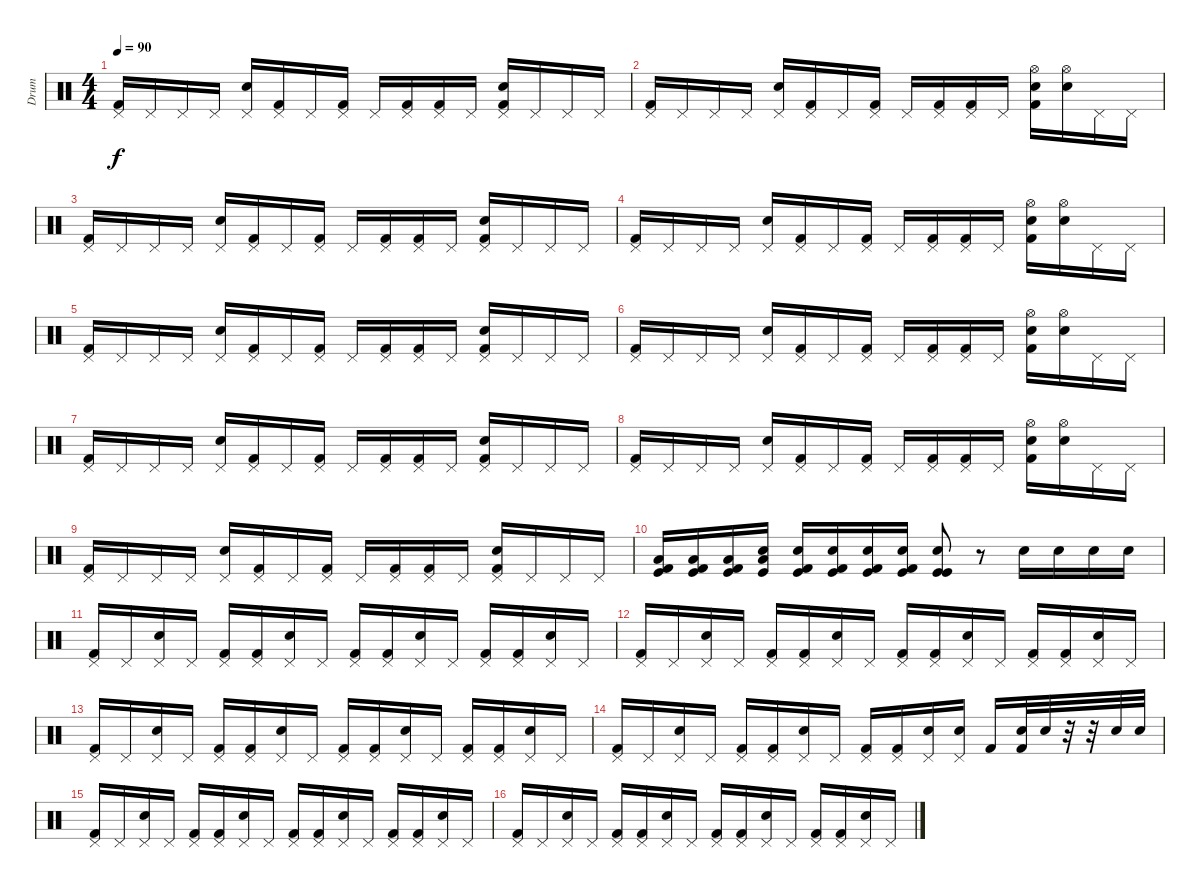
\track ("Drum" "Drum") {instrument percussion}
\staff {score}
\articulation defaults
\ts (4 4)
\tempo 90
\clef neutral
\ks c
("Pedal Hi-Hat (hit)" "Kick (hit) 2").16{dy f} "Pedal Hi-Hat (hit)".16 "Pedal Hi-Hat (hit)".16 "Pedal Hi-Hat (hit)".16 ("Pedal Hi-Hat (hit)" "Snare (hit) 2").16 ("Pedal Hi-Hat (hit)" "Kick (hit) 2").16 "Pedal Hi-Hat (hit)".16 ("Pedal Hi-Hat (hit)" "Kick (hit) 2").16 "Pedal Hi-Hat (hit)".16 ("Pedal Hi-Hat (hit)" "Kick (hit) 2").16 ("Pedal Hi-Hat (hit)" "Kick (hit) 2").16 "Pedal Hi-Hat (hit)".16 ("Pedal Hi-Hat (hit)" "Snare (hit) 2" "Kick (hit) 2").16 "Pedal Hi-Hat (hit)".16 "Pedal Hi-Hat (hit)".16 "Pedal Hi-Hat (hit)".16 |
("Pedal Hi-Hat (hit)" "Kick (hit) 2").16 "Pedal Hi-Hat (hit)".16 "Pedal Hi-Hat (hit)".16 "Pedal Hi-Hat (hit)".16 ("Pedal Hi-Hat (hit)" "Snare (hit) 2").16 ("Pedal Hi-Hat (hit)" "Kick (hit) 2").16 "Pedal Hi-Hat (hit)".16 ("Pedal Hi-Hat (hit)" "Kick (hit) 2").16 "Pedal Hi-Hat (hit)".16 ("Pedal Hi-Hat (hit)" "Kick (hit) 2").16 ("Pedal Hi-Hat (hit)" "Kick (hit) 2").16 "Pedal Hi-Hat (hit)".16 ("Hi-Hat (open)" "Snare (hit) 2" "Kick (hit) 2").16 ("Hi-Hat (open)" "Snare (hit) 2").16 "Pedal Hi-Hat (hit)".16 "Pedal Hi-Hat (hit)".16 |
("Pedal Hi-Hat (hit)" "Kick (hit) 2").16 "Pedal Hi-Hat (hit)".16 "Pedal Hi-Hat (hit)".16 "Pedal Hi-Hat (hit)".16 ("Pedal Hi-Hat (hit)" "Snare (hit) 2").16 ("Pedal Hi-Hat (hit)" "Kick (hit) 2").16 "Pedal Hi-Hat (hit)".16 ("Pedal Hi-Hat (hit)" "Kick (hit) 2").16 "Pedal Hi-Hat (hit)".16 ("Pedal Hi-Hat (hit)" "Kick (hit) 2").16 ("Pedal Hi-Hat (hit)" "Kick (hit) 2").16 "Pedal Hi-Hat (hit)".16 ("Pedal Hi-Hat (hit)" "Snare (hit) 2" "Kick (hit) 2").16 "Pedal Hi-Hat (hit)".16 "Pedal Hi-Hat (hit)".16 "Pedal Hi-Hat (hit)".16 |
("Pedal Hi-Hat (hit)" "Kick (hit) 2").16 "Pedal Hi-Hat (hit)".16 "Pedal Hi-Hat (hit)".16 "Pedal Hi-Hat (hit)".16 ("Pedal Hi-Hat (hit)" "Snare (hit) 2").16 ("Pedal Hi-Hat (hit)" "Kick (hit) 2").16 "Pedal Hi-Hat (hit)".16 ("Pedal Hi-Hat (hit)" "Kick (hit) 2").16 "Pedal Hi-Hat (hit)".16 ("Pedal Hi-Hat (hit)" "Kick (hit) 2").16 ("Pedal Hi-Hat (hit)" "Kick (hit) 2").16 "Pedal Hi-Hat (hit)".16 ("Hi-Hat (open)" "Snare (hit) 2" "Kick (hit) 2").16 ("Hi-Hat (open)" "Snare (hit) 2").16 "Pedal Hi-Hat (hit)".16 "Pedal Hi-Hat (hit)".16 |
("Pedal Hi-Hat (hit)" "Kick (hit) 2").16 "Pedal Hi-Hat (hit)".16 "Pedal Hi-Hat (hit)".16 "Pedal Hi-Hat (hit)".16 ("Pedal Hi-Hat (hit)" "Snare (hit) 2").16 ("Pedal Hi-Hat (hit)" "Kick (hit) 2").16 "Pedal Hi-Hat (hit)".16 ("Pedal Hi-Hat (hit)" "Kick (hit) 2").16 "Pedal Hi-Hat (hit)".16 ("Pedal Hi-Hat (hit)" "Kick (hit) 2").16 ("Pedal Hi-Hat (hit)" "Kick (hit) 2").16 "Pedal Hi-Hat (hit)".16 ("Pedal Hi-Hat (hit)" "Snare (hit) 2" "Kick (hit) 2").16 "Pedal Hi-Hat (hit)".16 "Pedal Hi-Hat (hit)".16 "Pedal Hi-Hat (hit)".16 |
("Pedal Hi-Hat (hit)" "Kick (hit) 2").16 "Pedal Hi-Hat (hit)".16 "Pedal Hi-Hat (hit)".16 "Pedal Hi-Hat (hit)".16 ("Pedal Hi-Hat (hit)" "Snare (hit) 2").16 ("Pedal Hi-Hat (hit)" "Kick (hit) 2").16 "Pedal Hi-Hat (hit)".16 ("Pedal Hi-Hat (hit)" "Kick (hit) 2").16 "Pedal Hi-Hat (hit)".16 ("Pedal Hi-Hat (hit)" "Kick (hit) 2").16 ("Pedal Hi-Hat (hit)" "Kick (hit) 2").16 "Pedal Hi-Hat (hit)".16 ("Hi-Hat (open)" "Snare (hit) 2" "Kick (hit) 2").16 ("Hi-Hat (open)" "Snare (hit) 2").16 "Pedal Hi-Hat (hit)".16 "Pedal Hi-Hat (hit)".16 |
("Pedal Hi-Hat (hit)" "Kick (hit) 2").16 "Pedal Hi-Hat (hit)".16 "Pedal Hi-Hat (hit)".16 "Pedal Hi-Hat (hit)".16 ("Pedal Hi-Hat (hit)" "Snare (hit) 2").16 ("Pedal Hi-Hat (hit)" "Kick (hit) 2").16 "Pedal Hi-Hat (hit)".16 ("Pedal Hi-Hat (hit)" "Kick (hit) 2").16 "Pedal Hi-Hat (hit)".16 ("Pedal Hi-Hat (hit)" "Kick (hit) 2").16 ("Pedal Hi-Hat (hit)" "Kick (hit) 2").16 "Pedal Hi-Hat (hit)".16 ("Pedal Hi-Hat (hit)" "Snare (hit) 2" "Kick (hit) 2").16 "Pedal Hi-Hat (hit)".16 "Pedal Hi-Hat (hit)".16 "Pedal Hi-Hat (hit)".16 |
("Pedal Hi-Hat (hit)" "Kick (hit) 2").16 "Pedal Hi-Hat (hit)".16 "Pedal Hi-Hat (hit)".16 "Pedal Hi-Hat (hit)".16 ("Pedal Hi-Hat (hit)" "Snare (hit) 2").16 ("Pedal Hi-Hat (hit)" "Kick (hit) 2").16 "Pedal Hi-Hat (hit)".16 ("Pedal Hi-Hat (hit)" "Kick (hit) 2").16 "Pedal Hi-Hat (hit)".16 ("Pedal Hi-Hat (hit)" "Kick (hit) 2").16 ("Pedal Hi-Hat (hit)" "Kick (hit) 2").16 "Pedal Hi-Hat (hit)".16 ("Hi-Hat (open)" "Snare (hit) 2" "Kick (hit) 2").16 ("Hi-Hat (open)" "Snare (hit) 2").16 "Pedal Hi-Hat (hit)".16 "Pedal Hi-Hat (hit)".16 |
("Pedal Hi-Hat (hit)" "Kick (hit) 2").16 "Pedal Hi-Hat (hit)".16 "Pedal Hi-Hat (hit)".16 "Pedal Hi-Hat (hit)".16 ("Pedal Hi-Hat (hit)" "Snare (hit) 2").16 ("Pedal Hi-Hat (hit)" "Kick (hit) 2").16 "Pedal Hi-Hat (hit)".16 ("Pedal Hi-Hat (hit)" "Kick (hit) 2").16 "Pedal Hi-Hat (hit)".16 ("Pedal Hi-Hat (hit)" "Kick (hit) 2").16 ("Pedal Hi-Hat (hit)" "Kick (hit) 2").16 "Pedal Hi-Hat (hit)".16 ("Pedal Hi-Hat (hit)" "Snare (hit) 2" "Kick (hit) 2").16 "Pedal Hi-Hat (hit)".16 "Pedal Hi-Hat (hit)".16 "Pedal Hi-Hat (hit)".16 |
("Kick (hit)" "Low Tom (hit)" "Kick (hit) 2").16 ("Kick (hit)" "Low Tom (hit)" "Kick (hit) 2").16 ("Kick (hit)" "Low Tom (hit)" "Kick (hit) 2").16 ("Kick (hit)" "Low Tom (hit)" "Snare (hit)").16 ("Kick (hit)" "Snare (hit) 2" "Kick (hit) 2").16 ("Kick (hit)" "Snare (hit) 2" "Kick (hit) 2").16 ("Kick (hit)" "Snare (hit) 2" "Kick (hit) 2").16 ("Kick (hit)" "Snare (hit) 2" "Kick (hit) 2").16 ("Kick (hit)" "Snare (hit) 2" "Kick (hit)").8 r.8 "Snare (hit) 2".16 "Snare (hit) 2".16 "Snare (hit) 2".16 "Snare (hit) 2".16 |
("Pedal Hi-Hat (hit)" "Kick (hit) 2").16 "Pedal Hi-Hat (hit)".16 ("Pedal Hi-Hat (hit)" "Snare (hit) 2").16 "Pedal Hi-Hat (hit)".16 ("Pedal Hi-Hat (hit)" "Kick (hit) 2").16 ("Pedal Hi-Hat (hit)" "Kick (hit) 2").16 ("Pedal Hi-Hat (hit)" "Snare (hit) 2").16 "Pedal Hi-Hat (hit)".16 ("Pedal Hi-Hat (hit)" "Kick (hit) 2").16 ("Pedal Hi-Hat (hit)" "Kick (hit) 2").16 ("Pedal Hi-Hat (hit)" "Snare (hit) 2").16 "Pedal Hi-Hat (hit)".16 ("Pedal Hi-Hat (hit)" "Kick (hit) 2").16 ("Pedal Hi-Hat (hit)" "Kick (hit) 2").16 ("Pedal Hi-Hat (hit)" "Snare (hit) 2").16 "Pedal Hi-Hat (hit)".16 |
("Pedal Hi-Hat (hit)" "Kick (hit) 2").16 "Pedal Hi-Hat (hit)".16 ("Pedal Hi-Hat (hit)" "Snare (hit) 2").16 "Pedal Hi-Hat (hit)".16 ("Pedal Hi-Hat (hit)" "Kick (hit) 2").16 ("Pedal Hi-Hat (hit)" "Kick (hit) 2").16 ("Pedal Hi-Hat (hit)" "Snare (hit) 2").16 "Pedal Hi-Hat (hit)".16 ("Pedal Hi-Hat (hit)" "Kick (hit) 2").16 ("Pedal Hi-Hat (hit)" "Kick (hit) 2").16 ("Pedal Hi-Hat (hit)" "Snare (hit) 2").16 "Pedal Hi-Hat (hit)".16 ("Pedal Hi-Hat (hit)" "Kick (hit) 2").16 ("Pedal Hi-Hat (hit)" "Kick (hit) 2").16 ("Pedal Hi-Hat (hit)" "Snare (hit) 2").16 "Pedal Hi-Hat (hit)".16 |
("Pedal Hi-Hat (hit)" "Kick (hit) 2").16 "Pedal Hi-Hat (hit)".16 ("Pedal Hi-Hat (hit)" "Snare (hit) 2").16 "Pedal Hi-Hat (hit)".16 ("Pedal Hi-Hat (hit)" "Kick (hit) 2").16 ("Pedal Hi-Hat (hit)" "Kick (hit) 2").16 ("Pedal Hi-Hat (hit)" "Snare (hit) 2").16 "Pedal Hi-Hat (hit)".16 ("Pedal Hi-Hat (hit)" "Kick (hit) 2").16 ("Pedal Hi-Hat (hit)" "Kick (hit) 2").16 ("Pedal Hi-Hat (hit)" "Snare (hit) 2").16 "Pedal Hi-Hat (hit)".16 ("Pedal Hi-Hat (hit)" "Kick (hit) 2").16 ("Pedal Hi-Hat (hit)" "Kick (hit) 2").16 ("Pedal Hi-Hat (hit)" "Snare (hit) 2").16 "Pedal Hi-Hat (hit)".16 |
("Pedal Hi-Hat (hit)" "Kick (hit) 2").16 "Pedal Hi-Hat (hit)".16 ("Pedal Hi-Hat (hit)" "Snare (hit) 2").16 "Pedal Hi-Hat (hit)".16 ("Pedal Hi-Hat (hit)" "Kick (hit) 2").16 ("Pedal Hi-Hat (hit)" "Kick (hit) 2").16 ("Pedal Hi-Hat (hit)" "Snare (hit) 2").16 "Pedal Hi-Hat (hit)".16 ("Pedal Hi-Hat (hit)" "Kick (hit) 2").16 ("Pedal Hi-Hat (hit)" "Kick (hit) 2").16 ("Pedal Hi-Hat (hit)" "Snare (hit) 2").16 ("Pedal Hi-Hat (hit)" "Snare (hit) 2").16 "Kick (hit) 2".16 ("Snare (hit) 2" "Kick (hit) 2").32 "Snare (hit) 2".32 r.32 r.32 "Snare (hit) 2".32 "Snare (hit) 2".32 |
("Pedal Hi-Hat (hit)" "Kick (hit) 2").16 "Pedal Hi-Hat (hit)".16 ("Pedal Hi-Hat (hit)" "Snare (hit) 2").16 "Pedal Hi-Hat (hit)".16 ("Pedal Hi-Hat (hit)" "Kick (hit) 2").16 ("Pedal Hi-Hat (hit)" "Kick (hit) 2").16 ("Pedal Hi-Hat (hit)" "Snare (hit) 2").16 "Pedal Hi-Hat (hit)".16 ("Pedal Hi-Hat (hit)" "Kick (hit) 2").16 ("Pedal Hi-Hat (hit)" "Kick (hit) 2").16 ("Pedal Hi-Hat (hit)" "Snare (hit) 2").16 "Pedal Hi-Hat (hit)".16 ("Pedal Hi-Hat (hit)" "Kick (hit) 2").16 ("Pedal Hi-Hat (hit)" "Kick (hit) 2").16 ("Pedal Hi-Hat (hit)" "Snare (hit) 2").16 "Pedal Hi-Hat (hit)".16 |
("Pedal Hi-Hat (hit)" "Kick (hit) 2").16 "Pedal Hi-Hat (hit)".16 ("Pedal Hi-Hat (hit)" "Snare (hit) 2").16 "Pedal Hi-Hat (hit)".16 ("Pedal Hi-Hat (hit)" "Kick (hit) 2").16 ("Pedal Hi-Hat (hit)" "Kick (hit) 2").16 ("Pedal Hi-Hat (hit)" "Snare (hit) 2").16 "Pedal Hi-Hat (hit)".16 ("Pedal Hi-Hat (hit)" "Kick (hit) 2").16 ("Pedal Hi-Hat (hit)" "Kick (hit) 2").16 ("Pedal Hi-Hat (hit)" "Snare (hit) 2").16 "Pedal Hi-Hat (hit)".16 ("Pedal Hi-Hat (hit)" "Kick (hit) 2").16 ("Pedal Hi-Hat (hit)" "Kick (hit) 2").16 ("Pedal Hi-Hat (hit)" "Snare (hit) 2").16 "Pedal Hi-Hat (hit)".16
